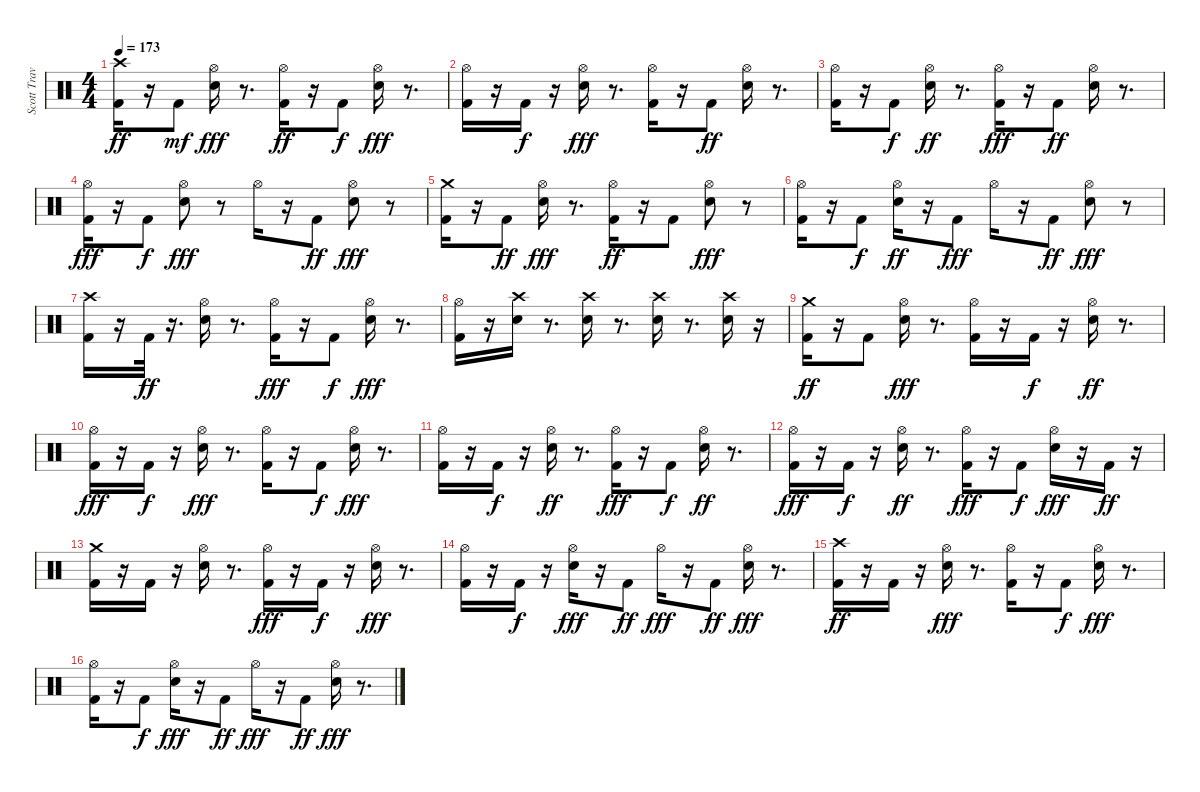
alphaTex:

\track ("Scott Travis" "Scott Trav") {instrument percussion}
\staff {score}
\articulation defaults
\ts (4 4)
\tempo 173
\clef neutral
\ks c
("Crash high (hit)" "Kick (hit) 2").16{dy ff volume 16} r.16 "Kick (hit) 2".8{dy mf} ("Snare (hit) 2" "Hi-Hat (open)").16{dy fff} r.8{d} ("Hi-Hat (open)" "Kick (hit) 2").16{dy ff} r.16 "Kick (hit) 2".8{dy f} ("Snare (hit) 2" "Hi-Hat (open)").16{dy fff} r.8{d} |
("Kick (hit) 2" "Hi-Hat (open)").16 r.16 "Kick (hit) 2".16{dy f} r.16 ("Snare (hit) 2" "Hi-Hat (open)").16{dy fff} r.8{d} ("Kick (hit) 2" "Hi-Hat (open)").16 r.16 "Kick (hit) 2".8{dy ff} ("Hi-Hat (open)" "Snare (hit) 2").16 r.8{d} |
("Hi-Hat (open)" "Kick (hit) 2").16 r.16 "Kick (hit) 2".8{dy f} ("Hi-Hat (open)" "Snare (hit) 2").16{dy ff} r.8{d} ("Kick (hit) 2" "Hi-Hat (open)").16{dy fff} r.16 "Kick (hit) 2".8{dy ff} ("Hi-Hat (open)" "Snare (hit) 2").16 r.8{d} |
("Kick (hit) 2" "Hi-Hat (open)").16{dy fff} r.16 "Kick (hit) 2".8{dy f} ("Snare (hit) 2" "Hi-Hat (open)").8{dy fff} r.8 "Hi-Hat (open)".16 r.16 "Kick (hit) 2".8{dy ff} ("Hi-Hat (open)" "Snare (hit) 2").8{dy fff} r.8 |
("Crash medium (hit)" "Kick (hit) 2").16 r.16 "Kick (hit) 2".8{dy ff} ("Snare (hit) 2" "Hi-Hat (open)").16{dy fff} r.8{d} ("Hi-Hat (open)" "Kick (hit) 2").16{dy ff} r.16 "Kick (hit) 2".8 ("Snare (hit) 2" "Hi-Hat (open)").8{dy fff} r.8 |
("Kick (hit) 2" "Hi-Hat (open)").16 r.16 "Kick (hit) 2".8{dy f} ("Hi-Hat (open)" "Snare (hit) 2").16{dy ff} r.16 "Kick (hit) 2".8{dy fff} "Hi-Hat (open)".16 r.16 "Kick (hit) 2".8{dy ff} ("Snare (hit) 2" "Hi-Hat (open)").8{dy fff} r.8 |
("Crash high (hit)" "Kick (hit) 2").16 r.16 "Kick (hit) 2".32{dy ff} r.16{d} ("Hi-Hat (open)" "Snare (hit) 2").16 r.8{d} ("Kick (hit) 2" "Hi-Hat (open)").16{dy fff} r.16 "Kick (hit) 2".8{dy f} ("Snare (hit) 2" "Hi-Hat (open)").16{dy fff} r.8{d} |
("Kick (hit) 2" "Hi-Hat (open)").16 r.16 ("Snare (hit) 2" "Crash high (hit)").16 r.8{d} ("Snare (hit) 2" "Crash high (hit)").16 r.8{d} ("Crash high (hit)" "Snare (hit) 2").16 r.8{d} ("Crash high (hit)" "Snare (hit) 2").16 r.16 |
("Kick (hit) 2" "Crash medium (hit)").16{dy ff} r.16 "Kick (hit) 2".8 ("Hi-Hat (open)" "Snare (hit) 2").16{dy fff} r.8{d} ("Kick (hit) 2" "Hi-Hat (open)").16 r.16 "Kick (hit) 2".16{dy f} r.16 ("Hi-Hat (open)" "Snare (hit) 2").16{dy ff} r.8{d} |
("Hi-Hat (open)" "Kick (hit) 2").16{dy fff} r.16 "Kick (hit) 2".16{dy f} r.16 ("Snare (hit) 2" "Hi-Hat (open)").16{dy fff} r.8{d} ("Kick (hit) 2" "Hi-Hat (open)").16 r.16 "Kick (hit) 2".8{dy f} ("Snare (hit) 2" "Hi-Hat (open)").16{dy fff} r.8{d} |
("Kick (hit) 2" "Hi-Hat (open)").16 r.16 "Kick (hit) 2".16{dy f} r.16 ("Hi-Hat (open)" "Snare (hit) 2").16{dy ff} r.8{d} ("Kick (hit) 2" "Hi-Hat (open)").16{dy fff} r.16 "Kick (hit) 2".8{dy f} ("Hi-Hat (open)" "Snare (hit) 2").16{dy ff} r.8{d} |
("Kick (hit) 2" "Hi-Hat (open)").16{dy fff} r.16 "Kick (hit) 2".16{dy f} r.16 ("Hi-Hat (open)" "Snare (hit) 2").16{dy ff} r.8{d} ("Kick (hit) 2" "Hi-Hat (open)").16{dy fff} r.16 "Kick (hit) 2".8{dy f} ("Snare (hit) 2" "Hi-Hat (open)").16{dy fff} r.16 "Kick (hit) 2".16{dy ff} r.16 |
("Crash medium (hit)" "Kick (hit) 2").16 r.16 "Kick (hit) 2".16 r.16 ("Snare (hit) 2" "Hi-Hat (open)").16 r.8{d} ("Kick (hit) 2" "Hi-Hat (open)").16{dy fff} r.16 "Kick (hit) 2".16{dy f} r.16 ("Snare (hit) 2" "Hi-Hat (open)").16{dy fff} r.8{d} |
("Kick (hit) 2" "Hi-Hat (open)").16 r.16 "Kick (hit) 2".16{dy f} r.16 ("Snare (hit) 2" "Hi-Hat (open)").16{dy fff} r.16 "Kick (hit) 2".8{dy ff} "Hi-Hat (open)".16{dy fff} r.16 "Kick (hit) 2".8{dy ff} ("Snare (hit) 2" "Hi-Hat (open)").16{dy fff} r.8{d} |
("Crash high (hit)" "Kick (hit) 2").16{dy ff} r.16 "Kick (hit) 2".16 r.16 ("Hi-Hat (open)" "Snare (hit) 2").16{dy fff} r.8{d} ("Kick (hit) 2" "Hi-Hat (open)").16 r.16 "Kick (hit) 2".8{dy f} ("Snare (hit) 2" "Hi-Hat (open)").16{dy fff} r.8{d} |
("Kick (hit) 2" "Hi-Hat (open)").16 r.16 "Kick (hit) 2".8{dy f} ("Snare (hit) 2" "Hi-Hat (open)").16{dy fff} r.16 "Kick (hit) 2".8{dy ff} "Hi-Hat (open)".16{dy fff} r.16 "Kick (hit) 2".8{dy ff} ("Snare (hit) 2" "Hi-Hat (open)").16{dy fff} r.8{d}
